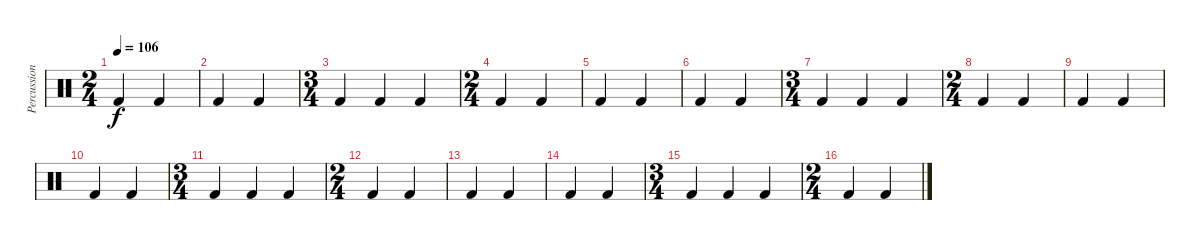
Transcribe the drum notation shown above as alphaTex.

\track ("Percussion" "Percussion") {instrument percussion}
\staff {score}
\articulation defaults
\ts (2 4)
\tempo 106
\clef neutral
\ks c "Kick (hit) 2".4{dy f} "Kick (hit) 2".4
|
"Kick (hit) 2".4 "Kick (hit) 2".4 |
\ts (3 4)
"Kick (hit) 2".4 "Kick (hit) 2".4 "Kick (hit) 2".4 |
\ts (2 4)
"Kick (hit) 2".4 "Kick (hit) 2".4 |
"Kick (hit) 2".4 "Kick (hit) 2".4 |
"Kick (hit) 2".4 "Kick (hit) 2".4 |
\ts (3 4)
"Kick (hit) 2".4 "Kick (hit) 2".4 "Kick (hit) 2".4 |
\ts (2 4)
"Kick (hit) 2".4 "Kick (hit) 2".4 |
"Kick (hit) 2".4 "Kick (hit) 2".4 |
"Kick (hit) 2".4 "Kick (hit) 2".4 |
\ts (3 4)
"Kick (hit) 2".4 "Kick (hit) 2".4 "Kick (hit) 2".4 |
\ts (2 4)
"Kick (hit) 2".4 "Kick (hit) 2".4 |
"Kick (hit) 2".4 "Kick (hit) 2".4 |
"Kick (hit) 2".4 "Kick (hit) 2".4 |
\ts (3 4)
"Kick (hit) 2".4 "Kick (hit) 2".4 "Kick (hit) 2".4 |
\ts (2 4)
"Kick (hit) 2".4 "Kick (hit) 2".4
